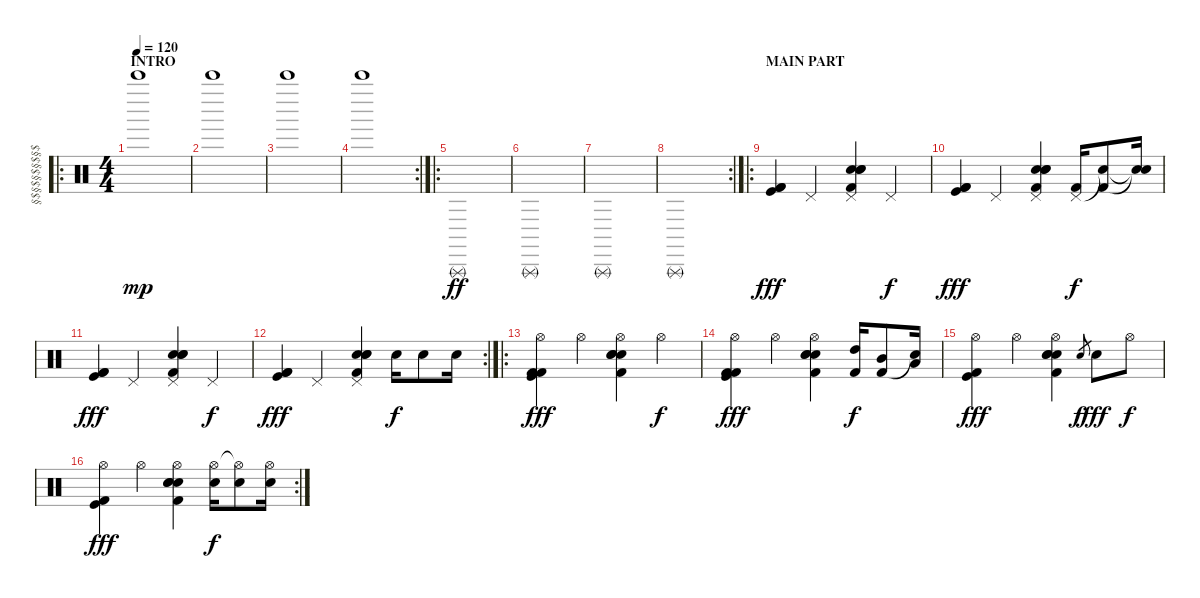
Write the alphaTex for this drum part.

\track ("§$§$§$§$§$§$§$§" "§$§$§$§$§$") {instrument percussion}
\staff {score}
\articulation defaults
\ro
\ts (4 4)
\section ("" "INTRO")
\tempo 120
\clef neutral
\ks c "Bell Tree (hit)".1{dy mp}
|
"Bell Tree (hit)".1 |
"Bell Tree (hit)".1 |
\rc 2 "Bell Tree (hit)".1
|
\ro "Triangle (rnute)".1{dy ff}
|
"Triangle (rnute)".1 |
"Triangle (rnute)".1 |
\rc 2 "Triangle (rnute)".1
|
\ro
\section ("" "MAIN PART")
("Kick (hit) 2" "Kick (hit)" "Kick (hit) 2").4{dy fff} "Pedal Hi-Hat (hit)".4 ("Pedal Hi-Hat (hit)" "Kick (hit) 2" "Electric Snare (hit)" "Electric Snare (hit)" "Electric Snare (hit)").4 "Pedal Hi-Hat (hit)".4{dy f} |
("Kick (hit) 2" "Kick (hit)" "Kick (hit) 2").4{dy fff} "Pedal Hi-Hat (hit)".4 ("Pedal Hi-Hat (hit)" "Kick (hit) 2" "Electric Snare (hit)" "Electric Snare (hit)" "Electric Snare (hit)").4 ("Pedal Hi-Hat (hit)" "Kick (hit) 2").16{dy f} ("Snare (hit)"{t} "Kick (hit) 2").8 ("Snare (hit)"{t} "Electric Snare (hit)"{t}).16 |
("Kick (hit) 2" "Kick (hit)" "Kick (hit) 2").4{dy fff} "Pedal Hi-Hat (hit)".4 ("Pedal Hi-Hat (hit)" "Kick (hit) 2" "Electric Snare (hit)" "Electric Snare (hit)" "Electric Snare (hit)").4 "Pedal Hi-Hat (hit)".4{dy f} |
\rc 2
("Kick (hit) 2" "Kick (hit)" "Kick (hit) 2").4{dy fff} "Pedal Hi-Hat (hit)".4 ("Pedal Hi-Hat (hit)" "Kick (hit) 2" "Electric Snare (hit)" "Electric Snare (hit)" "Electric Snare (hit)").4 "Electric Snare (hit)".16{dy f} "Electric Snare (hit)".8 "Electric Snare (hit)".16 |
\ro
("Hi-Hat (open)" "Kick (hit) 2" "Kick (hit)" "Kick (hit) 2").4{dy fff} "Hi-Hat (open)".4 ("Hi-Hat (open)" "Kick (hit) 2" "Electric Snare (hit)" "Electric Snare (hit)" "Electric Snare (hit)").4 "Hi-Hat (open)".4{dy f} |
("Hi-Hat (open)" "Kick (hit) 2" "Kick (hit)" "Kick (hit) 2").4{dy fff} "Hi-Hat (open)".4 ("Hi-Hat (open)" "Kick (hit) 2" "Electric Snare (hit)" "Electric Snare (hit)" "Electric Snare (hit)").4 ("High Tom (hit)" "Kick (hit) 2").16{dy f} ("Mid Tom (hit)" "Kick (hit) 2").8 ("Low Tom (hit)" "Electric Snare (hit)"{t}).16 |
("Hi-Hat (open)" "Kick (hit)" "Kick (hit) 2").4{dy fff} "Hi-Hat (open)".4 ("Hi-Hat (open)" "Kick (hit) 2" "Electric Snare (hit)" "Electric Snare (hit)" "Electric Snare (hit)").4 "Electric Snare (hit)".8{gr dy f} "Electric Snare (hit)".8{dy fff} "Hi-Hat (open)".8{dy f} |
\rc 2
("Hi-Hat (open)" "Kick (hit)" "Kick (hit) 2").4{dy fff} "Hi-Hat (open)".4 ("Hi-Hat (open)" "Kick (hit) 2" "Electric Snare (hit)" "Electric Snare (hit)" "Electric Snare (hit)").4 ("Hi-Hat (open)" "Electric Snare (hit)").16{dy f} ("Hi-Hat (open)"{t} "Electric Snare (hit)").8 ("Hi-Hat (open)" "Electric Snare (hit)").16
